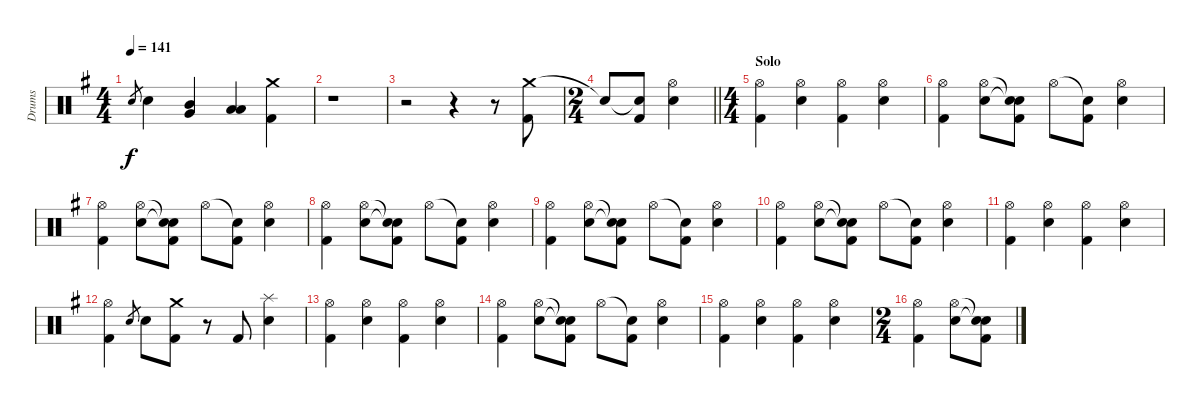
\track ("Drums" "Drums") {instrument percussion}
\staff {score}
\articulation defaults
\ts (4 4)
\tempo 141
\clef neutral
\ks g "Electric Snare (hit)".8{gr dy f} "Electric Snare (hit)".4
("Mid Tom (hit)" "Very Low Tom (hit)").4 ("Low Tom (hit)" "Low Floor Tom (hit)").4 ("Crash medium (hit)" "Kick (hit) 2").4 |
r.1 |
r.2 r.4 r.8 ("Crash medium (hit)" "Kick (hit) 2").8 |
\ts (2 4)
\barLineRight lightlight "Snare (hit)"{t}.8
("Snare (hit)"{t} "Kick (hit) 2").8 ("Hi-Hat (open)" "Electric Snare (hit)").4 |
\ts (4 4)
\section ("" "Solo")
("Hi-Hat (open)" "Kick (hit) 2").4 ("Hi-Hat (open)" "Electric Snare (hit)").4 ("Hi-Hat (open)" "Kick (hit) 2").4 ("Hi-Hat (open)" "Electric Snare (hit)").4 |
("Hi-Hat (open)" "Kick (hit) 2").4 ("Hi-Hat (open)" "Electric Snare (hit)").8 ("Snare (hit)"{t} "Snare (hit)"{t} "Kick (hit) 2").8 "Hi-Hat (open)".8 ("Snare (hit)"{t} "Kick (hit) 2").8 ("Hi-Hat (open)" "Electric Snare (hit)").4 |
("Hi-Hat (open)" "Kick (hit) 2").4 ("Hi-Hat (open)" "Electric Snare (hit)").8 ("Snare (hit)"{t} "Snare (hit)"{t} "Kick (hit) 2").8 "Hi-Hat (open)".8 ("Snare (hit)"{t} "Kick (hit) 2").8 ("Hi-Hat (open)" "Electric Snare (hit)").4 |
("Hi-Hat (open)" "Kick (hit) 2").4 ("Hi-Hat (open)" "Electric Snare (hit)").8 ("Snare (hit)"{t} "Snare (hit)"{t} "Kick (hit) 2").8 "Hi-Hat (open)".8 ("Snare (hit)"{t} "Kick (hit) 2").8 ("Hi-Hat (open)" "Electric Snare (hit)").4 |
("Hi-Hat (open)" "Kick (hit) 2").4 ("Hi-Hat (open)" "Electric Snare (hit)").8 ("Snare (hit)"{t} "Snare (hit)"{t} "Kick (hit) 2").8 "Hi-Hat (open)".8 ("Snare (hit)"{t} "Kick (hit) 2").8 ("Hi-Hat (open)" "Electric Snare (hit)").4 |
("Hi-Hat (open)" "Kick (hit) 2").4 ("Hi-Hat (open)" "Electric Snare (hit)").8 ("Snare (hit)"{t} "Snare (hit)"{t} "Kick (hit) 2").8 "Hi-Hat (open)".8 ("Snare (hit)"{t} "Kick (hit) 2").8 ("Hi-Hat (open)" "Electric Snare (hit)").4 |
("Hi-Hat (open)" "Kick (hit) 2").4 ("Hi-Hat (open)" "Electric Snare (hit)").4 ("Hi-Hat (open)" "Kick (hit) 2").4 ("Hi-Hat (open)" "Electric Snare (hit)").4 |
("Hi-Hat (open)" "Kick (hit) 2").4 "Electric Snare (hit)".8{gr} "Electric Snare (hit)".8 ("Crash medium (hit)" "Kick (hit) 2").8 r.8 "Kick (hit) 2".8 ("Splash (hit)" "Electric Snare (hit)").4 |
("Hi-Hat (open)" "Kick (hit) 2").4 ("Hi-Hat (open)" "Electric Snare (hit)").4 ("Hi-Hat (open)" "Kick (hit) 2").4 ("Hi-Hat (open)" "Electric Snare (hit)").4 |
("Hi-Hat (open)" "Kick (hit) 2").4 ("Hi-Hat (open)" "Electric Snare (hit)").8 ("Snare (hit)"{t} "Snare (hit)"{t} "Kick (hit) 2").8 "Hi-Hat (open)".8 ("Snare (hit)"{t} "Kick (hit) 2").8 ("Hi-Hat (open)" "Electric Snare (hit)").4 |
("Hi-Hat (open)" "Kick (hit) 2").4 ("Hi-Hat (open)" "Electric Snare (hit)").4 ("Hi-Hat (open)" "Kick (hit) 2").4 ("Hi-Hat (open)" "Electric Snare (hit)").4 |
\ts (2 4)
("Hi-Hat (open)" "Kick (hit) 2").4 ("Hi-Hat (open)" "Electric Snare (hit)").8 ("Snare (hit)"{t} "Snare (hit)"{t} "Kick (hit) 2").8
